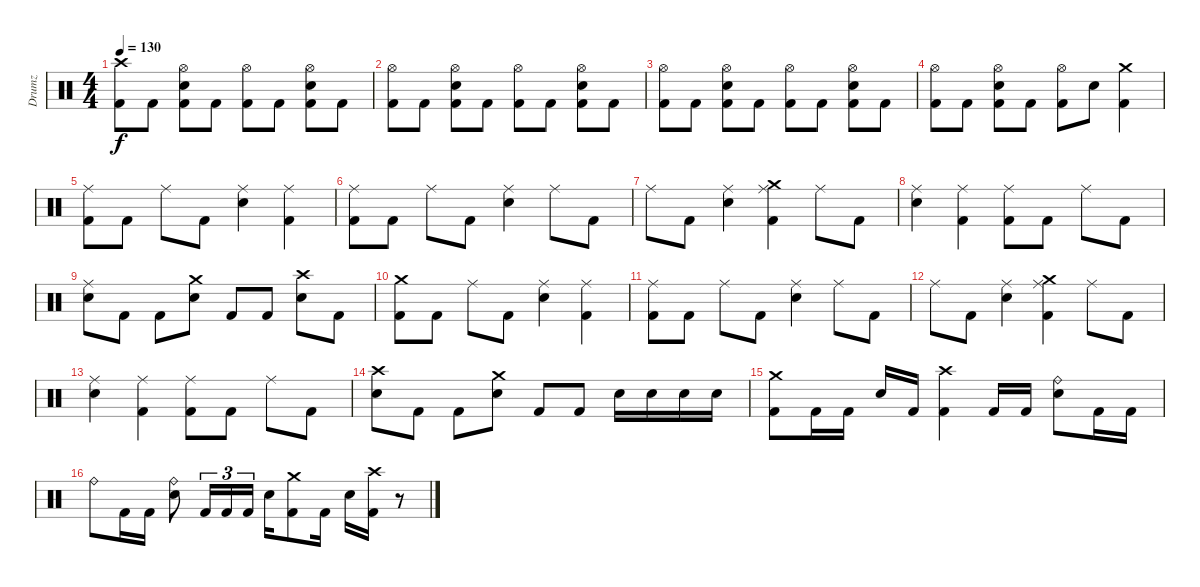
\track ("Drumz" "Drumz") {instrument percussion}
\staff {score}
\articulation defaults
\ts (4 4)
\tempo 130
\clef neutral
\ks c
("Kick (hit) 2" "Crash high (hit)").8{dy f} "Kick (hit) 2".8 ("Kick (hit) 2" "Snare (hit) 2" "Hi-Hat (open)").8 "Kick (hit) 2".8 ("Kick (hit) 2" "Hi-Hat (open)").8 "Kick (hit) 2".8 ("Kick (hit) 2" "Snare (hit) 2" "Hi-Hat (open)").8 "Kick (hit) 2".8 |
("Kick (hit) 2" "Hi-Hat (open)").8 "Kick (hit) 2".8 ("Kick (hit) 2" "Snare (hit) 2" "Hi-Hat (open)").8 "Kick (hit) 2".8 ("Kick (hit) 2" "Hi-Hat (open)").8 "Kick (hit) 2".8 ("Kick (hit) 2" "Snare (hit) 2" "Hi-Hat (open)").8 "Kick (hit) 2".8 |
("Kick (hit) 2" "Hi-Hat (open)").8 "Kick (hit) 2".8 ("Kick (hit) 2" "Snare (hit) 2" "Hi-Hat (open)").8 "Kick (hit) 2".8 ("Kick (hit) 2" "Hi-Hat (open)").8 "Kick (hit) 2".8 ("Kick (hit) 2" "Snare (hit) 2" "Hi-Hat (open)").8 "Kick (hit) 2".8 |
("Kick (hit) 2" "Hi-Hat (open)").8 "Kick (hit) 2".8 ("Kick (hit) 2" "Snare (hit) 2" "Hi-Hat (open)").8 "Kick (hit) 2".8 ("Kick (hit) 2" "Hi-Hat (open)").8 "Snare (hit) 2".8 ("Kick (hit) 2" "Crash medium (hit)").4 |
("Kick (hit) 2" "Ride (middle)").8 "Kick (hit) 2".8 "Ride (middle)".8 "Kick (hit) 2".8 ("Snare (hit) 2" "Ride (middle)").4 ("Kick (hit) 2" "Ride (middle)").4 |
("Kick (hit) 2" "Ride (middle)").8 "Kick (hit) 2".8 "Ride (middle)".8 "Kick (hit) 2".8 ("Snare (hit) 2" "Ride (middle)").4 "Ride (middle)".8 "Kick (hit) 2".8 |
"Ride (middle)".8 "Kick (hit) 2".8 ("Snare (hit) 2" "Ride (middle)").4 ("Kick (hit) 2" "Ride (middle)" "Crash medium (hit)").4 "Ride (middle)".8 "Kick (hit) 2".8 |
("Snare (hit) 2" "Ride (middle)").4 ("Kick (hit) 2" "Ride (middle)").4 ("Kick (hit) 2" "Ride (middle)").8 "Kick (hit) 2".8 "Ride (middle)".8 "Kick (hit) 2".8 |
("Snare (hit) 2" "Ride (middle)").8 "Kick (hit) 2".8 "Kick (hit) 2".8 ("Snare (hit) 2" "Crash medium (hit)").8 "Kick (hit) 2".8 "Kick (hit) 2".8 ("Snare (hit) 2" "Crash high (hit)").8 "Kick (hit) 2".8 |
("Kick (hit) 2" "Crash medium (hit)").8 "Kick (hit) 2".8 "Ride (middle)".8 "Kick (hit) 2".8 ("Snare (hit) 2" "Ride (middle)").4 ("Kick (hit) 2" "Ride (middle)").4 |
("Kick (hit) 2" "Ride (middle)").8 "Kick (hit) 2".8 "Ride (middle)".8 "Kick (hit) 2".8 ("Snare (hit) 2" "Ride (middle)").4 "Ride (middle)".8 "Kick (hit) 2".8 |
"Ride (middle)".8 "Kick (hit) 2".8 ("Snare (hit) 2" "Ride (middle)").4 ("Kick (hit) 2" "Ride (middle)" "Crash medium (hit)").4 "Ride (middle)".8 "Kick (hit) 2".8 |
("Snare (hit) 2" "Ride (middle)").4 ("Kick (hit) 2" "Ride (middle)").4 ("Kick (hit) 2" "Ride (middle)").8 "Kick (hit) 2".8 "Ride (middle)".8 "Kick (hit) 2".8 |
("Snare (hit) 2" "Crash high (hit)").8 "Kick (hit) 2".8 "Kick (hit) 2".8 ("Snare (hit) 2" "Crash medium (hit)").8 "Kick (hit) 2".8 "Kick (hit) 2".8 "Snare (hit) 2".16 "Snare (hit) 2".16 "Snare (hit) 2".16 "Snare (hit) 2".16 |
("Kick (hit) 2" "Crash medium (hit)").8 "Kick (hit) 2".16 "Kick (hit) 2".16 "Snare (hit) 2".16 "Kick (hit) 2".16 ("Kick (hit) 2" "Crash high (hit)").4 "Kick (hit) 2".16 "Kick (hit) 2".16 ("Snare (hit) 2" "Ride (bell)").8 "Kick (hit) 2".16 "Kick (hit) 2".16 |
"Ride (bell)".8 "Kick (hit) 2".16 "Kick (hit) 2".16 ("Snare (hit) 2" "Ride (bell)").8 "Kick (hit) 2".16{tu (3 2)} "Kick (hit) 2".16{tu (3 2)} "Kick (hit) 2".16{tu (3 2)} "Snare (hit) 2".16 ("Kick (hit) 2" "Crash medium (hit)").8 "Kick (hit) 2".16 "Snare (hit) 2".16 ("Kick (hit) 2" "Crash high (hit)").16 r.8
